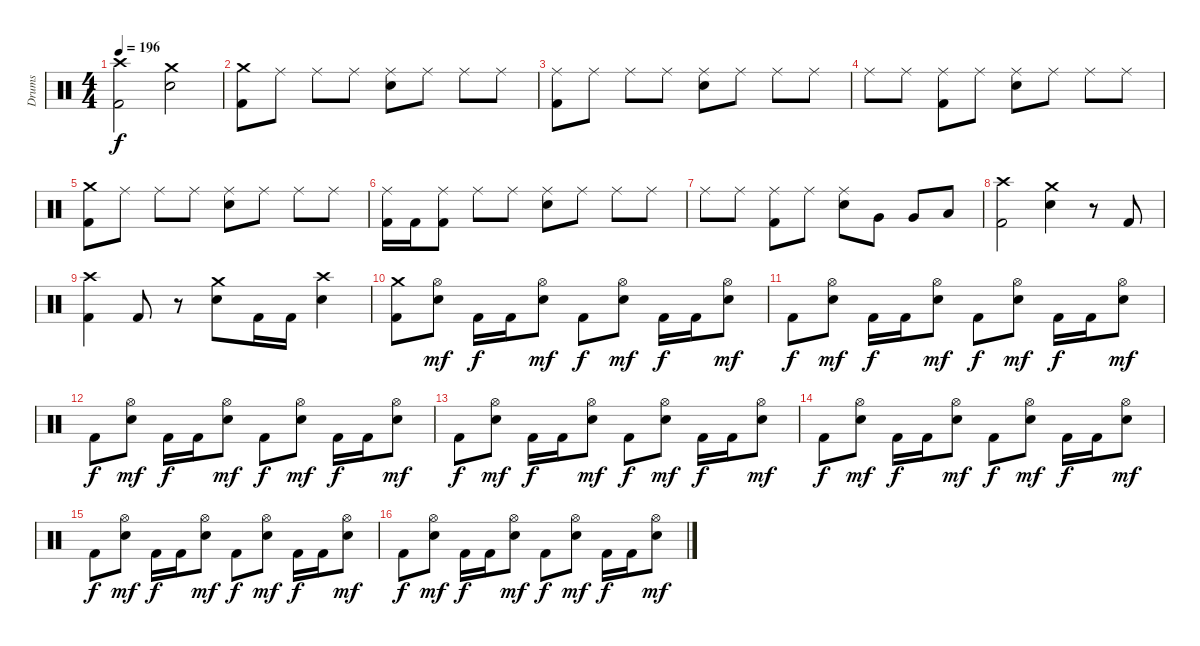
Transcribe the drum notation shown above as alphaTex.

\track ("Drums" "Drums") {instrument percussion}
\staff
\articulation defaults
\ts (4 4)
\tempo 196
\clef neutral
\ks c
("Crash high (hit)" "Kick (hit) 2").2{dy f} ("Crash medium (hit)" "Electric Snare (hit)").2 |
("Crash medium (hit)" "Kick (hit) 2").8 "Ride (middle)".8 "Ride (middle)".8 "Ride (middle)".8 ("Ride (middle)" "Electric Snare (hit)").8 "Ride (middle)".8 "Ride (middle)".8 "Ride (middle)".8 |
("Ride (middle)" "Kick (hit) 2").8 "Ride (middle)".8 "Ride (middle)".8 "Ride (middle)".8 ("Ride (middle)" "Electric Snare (hit)").8 "Ride (middle)".8 "Ride (middle)".8 "Ride (middle)".8 |
"Ride (middle)".8 "Ride (middle)".8 ("Ride (middle)" "Kick (hit) 2").8 "Ride (middle)".8 ("Ride (middle)" "Electric Snare (hit)").8 "Ride (middle)".8 "Ride (middle)".8 "Ride (middle)".8 |
("Crash medium (hit)" "Kick (hit) 2").8 "Ride (middle)".8 "Ride (middle)".8 "Ride (middle)".8 ("Ride (middle)" "Electric Snare (hit)").8 "Ride (middle)".8 "Ride (middle)".8 "Ride (middle)".8 |
("Ride (middle)" "Kick (hit) 2").16 "Kick (hit) 2".16 ("Ride (middle)" "Kick (hit) 2").8 "Ride (middle)".8 "Ride (middle)".8 ("Ride (middle)" "Electric Snare (hit)").8 "Ride (middle)".8 "Ride (middle)".8 "Ride (middle)".8 |
"Ride (middle)".8 "Ride (middle)".8 ("Ride (middle)" "Kick (hit) 2").8 "Ride (middle)".8 ("Ride (middle)" "Electric Snare (hit)").8 "Very Low Tom (hit)".8 "Very Low Tom (hit)".8 "Low Floor Tom (hit)".8 |
("Crash high (hit)" "Kick (hit) 2").2 ("Crash medium (hit)" "Electric Snare (hit)").4 r.8 "Kick (hit) 2".8 |
("Crash high (hit)" "Kick (hit) 2").4 "Kick (hit) 2".8 r.8 ("Crash medium (hit)" "Electric Snare (hit)").8 "Kick (hit) 2".16 "Kick (hit) 2".16 ("Crash high (hit)" "Electric Snare (hit)").4 |
("Crash medium (hit)" "Kick (hit) 2").8 ("Hi-Hat (open)" "Electric Snare (hit)").8{dy mf} "Kick (hit) 2".16{dy f} "Kick (hit) 2".16 ("Hi-Hat (open)" "Electric Snare (hit)").8{dy mf} "Kick (hit) 2".8{dy f} ("Hi-Hat (open)" "Electric Snare (hit)").8{dy mf} "Kick (hit) 2".16{dy f} "Kick (hit) 2".16 ("Hi-Hat (open)" "Electric Snare (hit)").8{dy mf} |
"Kick (hit) 2".8{dy f} ("Hi-Hat (open)" "Electric Snare (hit)").8{dy mf} "Kick (hit) 2".16{dy f} "Kick (hit) 2".16 ("Hi-Hat (open)" "Electric Snare (hit)").8{dy mf} "Kick (hit) 2".8{dy f} ("Hi-Hat (open)" "Electric Snare (hit)").8{dy mf} "Kick (hit) 2".16{dy f} "Kick (hit) 2".16 ("Hi-Hat (open)" "Electric Snare (hit)").8{dy mf} |
"Kick (hit) 2".8{dy f} ("Hi-Hat (open)" "Electric Snare (hit)").8{dy mf} "Kick (hit) 2".16{dy f} "Kick (hit) 2".16 ("Hi-Hat (open)" "Electric Snare (hit)").8{dy mf} "Kick (hit) 2".8{dy f} ("Hi-Hat (open)" "Electric Snare (hit)").8{dy mf} "Kick (hit) 2".16{dy f} "Kick (hit) 2".16 ("Hi-Hat (open)" "Electric Snare (hit)").8{dy mf} |
"Kick (hit) 2".8{dy f} ("Hi-Hat (open)" "Electric Snare (hit)").8{dy mf} "Kick (hit) 2".16{dy f} "Kick (hit) 2".16 ("Hi-Hat (open)" "Electric Snare (hit)").8{dy mf} "Kick (hit) 2".8{dy f} ("Hi-Hat (open)" "Electric Snare (hit)").8{dy mf} "Kick (hit) 2".16{dy f} "Kick (hit) 2".16 ("Hi-Hat (open)" "Electric Snare (hit)").8{dy mf} |
"Kick (hit) 2".8{dy f} ("Hi-Hat (open)" "Electric Snare (hit)").8{dy mf} "Kick (hit) 2".16{dy f} "Kick (hit) 2".16 ("Hi-Hat (open)" "Electric Snare (hit)").8{dy mf} "Kick (hit) 2".8{dy f} ("Hi-Hat (open)" "Electric Snare (hit)").8{dy mf} "Kick (hit) 2".16{dy f} "Kick (hit) 2".16 ("Hi-Hat (open)" "Electric Snare (hit)").8{dy mf} |
"Kick (hit) 2".8{dy f} ("Hi-Hat (open)" "Electric Snare (hit)").8{dy mf} "Kick (hit) 2".16{dy f} "Kick (hit) 2".16 ("Hi-Hat (open)" "Electric Snare (hit)").8{dy mf} "Kick (hit) 2".8{dy f} ("Hi-Hat (open)" "Electric Snare (hit)").8{dy mf} "Kick (hit) 2".16{dy f} "Kick (hit) 2".16 ("Hi-Hat (open)" "Electric Snare (hit)").8{dy mf} |
"Kick (hit) 2".8{dy f} ("Hi-Hat (open)" "Electric Snare (hit)").8{dy mf} "Kick (hit) 2".16{dy f} "Kick (hit) 2".16 ("Hi-Hat (open)" "Electric Snare (hit)").8{dy mf} "Kick (hit) 2".8{dy f} ("Hi-Hat (open)" "Electric Snare (hit)").8{dy mf} "Kick (hit) 2".16{dy f} "Kick (hit) 2".16 ("Hi-Hat (open)" "Electric Snare (hit)").8{dy mf}
